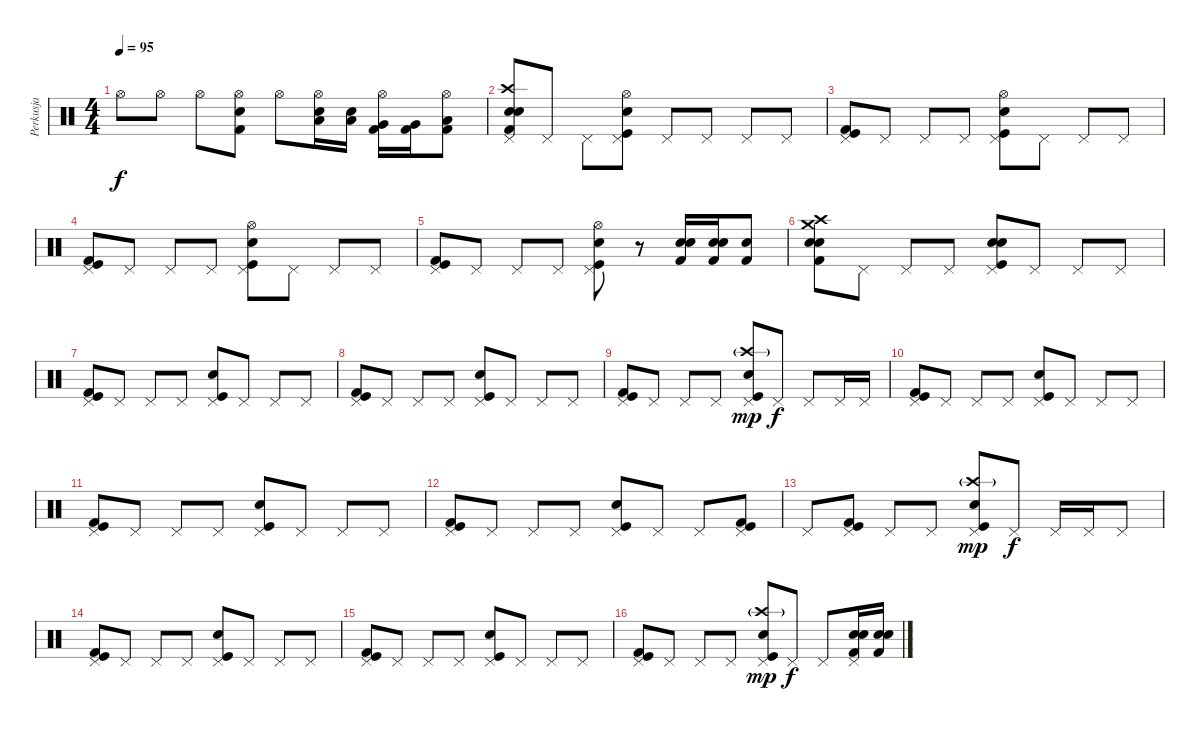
\track ("Perkusja" "Perkusja") {instrument percussion}
\staff {score}
\articulation defaults
\ts (4 4)
\tempo 95
\clef neutral
\ks c "Hi-Hat (open)".8{dy f} "Hi-Hat (open)".8 "Hi-Hat (open)".8
("Hi-Hat (open)" "Electric Snare (hit)" "Kick (hit) 2").8 "Hi-Hat (open)".8 ("Hi-Hat (open)" "Electric Snare (hit)" "Low Tom (hit)").16 ("Electric Snare (hit)" "Low Tom (hit)").16 ("Hi-Hat (open)" "Kick (hit) 2" "Very Low Tom (hit)").16 ("Kick (hit) 2" "Very Low Tom (hit)").16 ("Hi-Hat (open)" "Kick (hit) 2" "Low Floor Tom (hit)").8 |
("Pedal Hi-Hat (hit)" "Crash high (hit)" "Snare (hit) 2" "Electric Snare (hit)" "Kick (hit) 2").8 "Pedal Hi-Hat (hit)".8 "Pedal Hi-Hat (hit)".8 ("Pedal Hi-Hat (hit)" "Hi-Hat (open)" "Kick (hit)" "Electric Snare (hit)").8 "Pedal Hi-Hat (hit)".8 "Pedal Hi-Hat (hit)".8 "Pedal Hi-Hat (hit)".8 "Pedal Hi-Hat (hit)".8 |
("Pedal Hi-Hat (hit)" "Kick (hit)" "Kick (hit) 2").8 "Pedal Hi-Hat (hit)".8 "Pedal Hi-Hat (hit)".8 "Pedal Hi-Hat (hit)".8 ("Pedal Hi-Hat (hit)" "Hi-Hat (open)" "Kick (hit)" "Electric Snare (hit)").8 "Pedal Hi-Hat (hit)".8 "Pedal Hi-Hat (hit)".8 "Pedal Hi-Hat (hit)".8 |
("Pedal Hi-Hat (hit)" "Kick (hit)" "Kick (hit) 2").8 "Pedal Hi-Hat (hit)".8 "Pedal Hi-Hat (hit)".8 "Pedal Hi-Hat (hit)".8 ("Pedal Hi-Hat (hit)" "Hi-Hat (open)" "Kick (hit)" "Electric Snare (hit)").8 "Pedal Hi-Hat (hit)".8 "Pedal Hi-Hat (hit)".8 "Pedal Hi-Hat (hit)".8 |
("Pedal Hi-Hat (hit)" "Kick (hit)" "Kick (hit) 2").8 "Pedal Hi-Hat (hit)".8 "Pedal Hi-Hat (hit)".8 "Pedal Hi-Hat (hit)".8 ("Pedal Hi-Hat (hit)" "Hi-Hat (open)" "Kick (hit)" "Electric Snare (hit)").8 r.8 ("Electric Snare (hit)" "Kick (hit) 2" "Electric Snare (hit)").16 ("Electric Snare (hit)" "Kick (hit) 2" "Electric Snare (hit)").16 ("Snare (hit) 2" "Kick (hit) 2").8 |
("Crash medium (hit)" "Crash high (hit)" "Snare (hit) 2" "Kick (hit) 2" "Electric Snare (hit)").8 "Pedal Hi-Hat (hit)".8 "Pedal Hi-Hat (hit)".8 "Pedal Hi-Hat (hit)".8 ("Pedal Hi-Hat (hit)" "Snare (hit) 2" "Kick (hit)" "Electric Snare (hit)").8 "Pedal Hi-Hat (hit)".8 "Pedal Hi-Hat (hit)".8 "Pedal Hi-Hat (hit)".8 |
("Pedal Hi-Hat (hit)" "Kick (hit)" "Kick (hit) 2").8 "Pedal Hi-Hat (hit)".8 "Pedal Hi-Hat (hit)".8 "Pedal Hi-Hat (hit)".8 ("Pedal Hi-Hat (hit)" "Kick (hit)" "Electric Snare (hit)").8 "Pedal Hi-Hat (hit)".8 "Pedal Hi-Hat (hit)".8 "Pedal Hi-Hat (hit)".8 |
("Pedal Hi-Hat (hit)" "Kick (hit)" "Kick (hit) 2").8 "Pedal Hi-Hat (hit)".8 "Pedal Hi-Hat (hit)".8 "Pedal Hi-Hat (hit)".8 ("Pedal Hi-Hat (hit)" "Kick (hit)" "Electric Snare (hit)").8 "Pedal Hi-Hat (hit)".8 "Pedal Hi-Hat (hit)".8 "Pedal Hi-Hat (hit)".8 |
("Pedal Hi-Hat (hit)" "Kick (hit)" "Kick (hit) 2").8 "Pedal Hi-Hat (hit)".8 "Pedal Hi-Hat (hit)".8 "Pedal Hi-Hat (hit)".8 ("Pedal Hi-Hat (hit)" "Crash high (hit)"{g} "Kick (hit)" "Electric Snare (hit)").8{dy mp} "Pedal Hi-Hat (hit)".8{dy f} "Pedal Hi-Hat (hit)".8 "Pedal Hi-Hat (hit)".16 "Pedal Hi-Hat (hit)".16 |
("Pedal Hi-Hat (hit)" "Kick (hit)" "Kick (hit) 2").8 "Pedal Hi-Hat (hit)".8 "Pedal Hi-Hat (hit)".8 "Pedal Hi-Hat (hit)".8 ("Pedal Hi-Hat (hit)" "Kick (hit)" "Electric Snare (hit)").8 "Pedal Hi-Hat (hit)".8 "Pedal Hi-Hat (hit)".8 "Pedal Hi-Hat (hit)".8 |
("Pedal Hi-Hat (hit)" "Kick (hit)" "Kick (hit) 2").8 "Pedal Hi-Hat (hit)".8 "Pedal Hi-Hat (hit)".8 "Pedal Hi-Hat (hit)".8 ("Pedal Hi-Hat (hit)" "Kick (hit)" "Electric Snare (hit)").8 "Pedal Hi-Hat (hit)".8 "Pedal Hi-Hat (hit)".8 "Pedal Hi-Hat (hit)".8 |
("Pedal Hi-Hat (hit)" "Kick (hit)" "Kick (hit) 2").8 "Pedal Hi-Hat (hit)".8 "Pedal Hi-Hat (hit)".8 "Pedal Hi-Hat (hit)".8 ("Pedal Hi-Hat (hit)" "Kick (hit)" "Electric Snare (hit)").8 "Pedal Hi-Hat (hit)".8 "Pedal Hi-Hat (hit)".8 ("Pedal Hi-Hat (hit)" "Kick (hit) 2" "Kick (hit)").8 |
"Pedal Hi-Hat (hit)".8 ("Pedal Hi-Hat (hit)" "Kick (hit) 2" "Kick (hit)").8 "Pedal Hi-Hat (hit)".8 "Pedal Hi-Hat (hit)".8 ("Pedal Hi-Hat (hit)" "Crash high (hit)"{g} "Kick (hit)" "Electric Snare (hit)").8{dy mp} "Pedal Hi-Hat (hit)".8{dy f} "Pedal Hi-Hat (hit)".16 "Pedal Hi-Hat (hit)".16 "Pedal Hi-Hat (hit)".8 |
("Pedal Hi-Hat (hit)" "Kick (hit)" "Kick (hit) 2").8 "Pedal Hi-Hat (hit)".8 "Pedal Hi-Hat (hit)".8 "Pedal Hi-Hat (hit)".8 ("Pedal Hi-Hat (hit)" "Kick (hit)" "Electric Snare (hit)").8 "Pedal Hi-Hat (hit)".8 "Pedal Hi-Hat (hit)".8 "Pedal Hi-Hat (hit)".8 |
("Pedal Hi-Hat (hit)" "Kick (hit)" "Kick (hit) 2").8 "Pedal Hi-Hat (hit)".8 "Pedal Hi-Hat (hit)".8 "Pedal Hi-Hat (hit)".8 ("Pedal Hi-Hat (hit)" "Kick (hit)" "Electric Snare (hit)").8 "Pedal Hi-Hat (hit)".8 "Pedal Hi-Hat (hit)".8 "Pedal Hi-Hat (hit)".8 |
("Pedal Hi-Hat (hit)" "Kick (hit)" "Kick (hit) 2").8 "Pedal Hi-Hat (hit)".8 "Pedal Hi-Hat (hit)".8 "Pedal Hi-Hat (hit)".8 ("Pedal Hi-Hat (hit)" "Crash high (hit)"{g} "Kick (hit)" "Electric Snare (hit)").8{dy mp} "Pedal Hi-Hat (hit)".8{dy f} "Pedal Hi-Hat (hit)".8 ("Pedal Hi-Hat (hit)" "Kick (hit) 2" "Electric Snare (hit)" "Electric Snare (hit)").16 ("Kick (hit) 2" "Electric Snare (hit)" "Electric Snare (hit)").16
